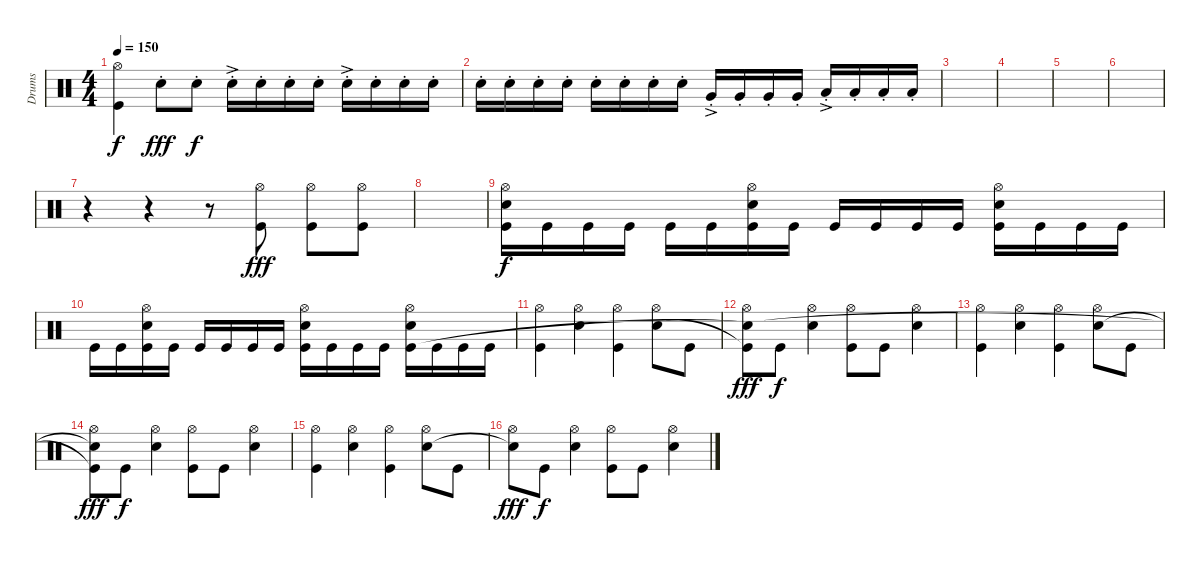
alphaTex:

\track ("Drums" "Drums") {instrument percussion}
\staff {score}
\articulation defaults
\ts (4 4)
\tempo 150
\clef neutral
\ks c
("Hi-Hat (open)" "Kick (hit)").4{dy f} "Snare (hit) 2"{st}.8{dy fff} "Snare (hit) 2"{st}.8{dy f} "Snare (hit) 2"{ac st}.16 "Snare (hit) 2"{st}.16 "Snare (hit) 2"{st}.16 "Snare (hit) 2"{st}.16 "Snare (hit) 2"{ac st}.16 "Snare (hit) 2"{st}.16 "Snare (hit) 2"{st}.16 "Snare (hit) 2"{st}.16 |
"Snare (hit) 2"{st}.16 "Snare (hit) 2"{st}.16 "Snare (hit) 2"{st}.16 "Snare (hit) 2"{st}.16 "Snare (hit) 2"{st}.16 "Snare (hit) 2"{st}.16 "Snare (hit) 2"{st}.16 "Snare (hit) 2"{st}.16 "Very Low Tom (hit)"{ac st}.16 "Very Low Tom (hit)"{st}.16 "Very Low Tom (hit)"{st}.16 "Very Low Tom (hit)"{st}.16 "Low Floor Tom (hit)"{ac st}.16 "Low Floor Tom (hit)"{st}.16 "Low Floor Tom (hit)"{st}.16 "Low Floor Tom (hit)"{st}.16 |
|
|
|
|
r.4 r.4 r.8 ("Hi-Hat (open)" "Kick (hit)").8{dy fff} ("Hi-Hat (open)" "Kick (hit)").8 ("Hi-Hat (open)" "Kick (hit)").8 |
|
("Hi-Hat (open)" "Snare (hit) 2" "Kick (hit)").16{dy f} "Kick (hit)".16 "Kick (hit)".16 "Kick (hit)".16 "Kick (hit)".16 "Kick (hit)".16 ("Hi-Hat (open)" "Snare (hit) 2" "Kick (hit)").16 "Kick (hit)".16 "Kick (hit)".16 "Kick (hit)".16 "Kick (hit)".16 "Kick (hit)".16 ("Hi-Hat (open)" "Snare (hit) 2" "Kick (hit)").16 "Kick (hit)".16 "Kick (hit)".16 "Kick (hit)".16 |
"Kick (hit)".16 "Kick (hit)".16 ("Hi-Hat (open)" "Snare (hit) 2" "Kick (hit)").16 "Kick (hit)".16 "Kick (hit)".16 "Kick (hit)".16 "Kick (hit)".16 "Kick (hit)".16 ("Hi-Hat (open)" "Snare (hit) 2" "Kick (hit)").16 "Kick (hit)".16 "Kick (hit)".16 "Kick (hit)".16 ("Hi-Hat (open)" "Snare (hit) 2" "Kick (hit)").16 "Kick (hit)".16 "Kick (hit)".16 "Kick (hit)".16 |
("Hi-Hat (open)" "Kick (hit)").4 ("Hi-Hat (open)" "Snare (hit) 2").4 ("Hi-Hat (open)" "Kick (hit)").4 ("Hi-Hat (open)" "Snare (hit) 2").8 "Kick (hit)".8 |
("Hi-Hat (open)" "Kick (hit)"{t} "Snare (hit)"{t}).8{dy fff} "Kick (hit)".8{dy f} ("Hi-Hat (open)" "Snare (hit) 2").4 ("Hi-Hat (open)" "Kick (hit)").8 "Kick (hit)".8 ("Hi-Hat (open)" "Snare (hit) 2").4 |
("Hi-Hat (open)" "Kick (hit)").4 ("Hi-Hat (open)" "Snare (hit) 2").4 ("Hi-Hat (open)" "Kick (hit)").4 ("Hi-Hat (open)" "Snare (hit) 2").8 "Kick (hit)".8 |
("Hi-Hat (open)" "Kick (hit)"{t} "Snare (hit)"{t}).8{dy fff} "Kick (hit)".8{dy f} ("Hi-Hat (open)" "Snare (hit) 2").4 ("Hi-Hat (open)" "Kick (hit)").8 "Kick (hit)".8 ("Hi-Hat (open)" "Snare (hit) 2").4 |
("Hi-Hat (open)" "Kick (hit)").4 ("Hi-Hat (open)" "Snare (hit) 2").4 ("Hi-Hat (open)" "Kick (hit)").4 ("Hi-Hat (open)" "Snare (hit) 2").8 "Kick (hit)".8 |
("Hi-Hat (open)" "Snare (hit)"{t}).8{dy fff} "Kick (hit)".8{dy f} ("Hi-Hat (open)" "Snare (hit) 2").4 ("Hi-Hat (open)" "Kick (hit)").8 "Kick (hit)".8 ("Hi-Hat (open)" "Snare (hit) 2").4
